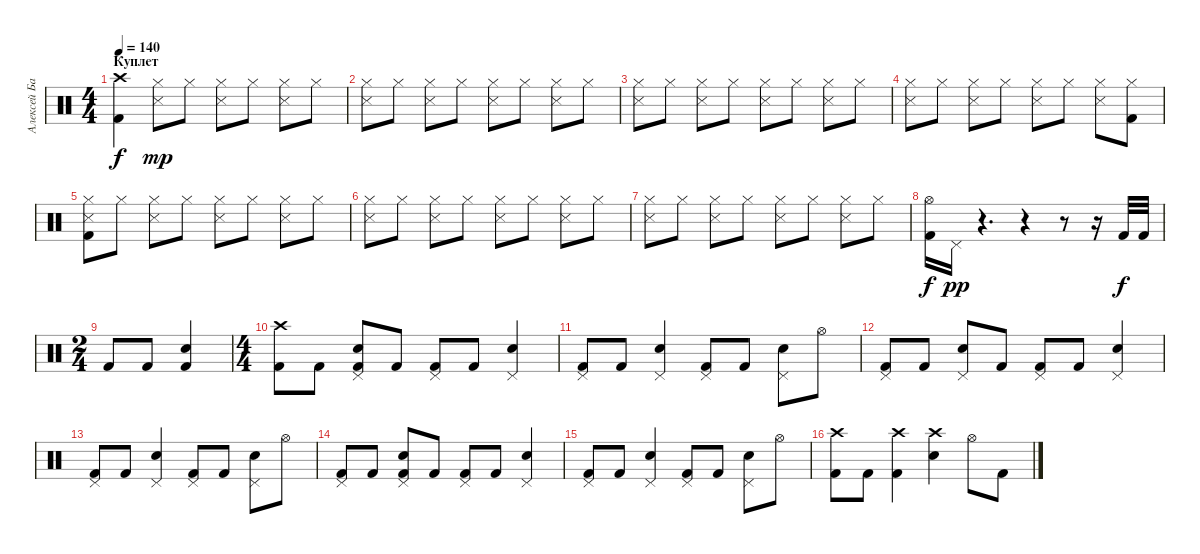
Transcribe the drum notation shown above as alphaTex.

\track ("Алексей Барзилович" "Алексей Ба") {instrument percussion}
\staff {score}
\articulation defaults
\ts (4 4)
\section ("" "Куплет")
\tempo 140
\clef neutral
\ks c
("Crash high (hit)" "Kick (hit) 2").4{dy f} ("Hi-Hat (closed)" "Snare (side stick) 3").8{dy mp} "Hi-Hat (closed)".8 ("Hi-Hat (closed)" "Snare (side stick) 3").8 "Hi-Hat (closed)".8 ("Hi-Hat (closed)" "Snare (side stick) 3").8 "Hi-Hat (closed)".8 |
("Hi-Hat (closed)" "Snare (side stick) 3").8 "Hi-Hat (closed)".8 ("Hi-Hat (closed)" "Snare (side stick) 3").8 "Hi-Hat (closed)".8 ("Hi-Hat (closed)" "Snare (side stick) 3").8 "Hi-Hat (closed)".8 ("Hi-Hat (closed)" "Snare (side stick) 3").8 "Hi-Hat (closed)".8 |
("Hi-Hat (closed)" "Snare (side stick) 3").8 "Hi-Hat (closed)".8 ("Hi-Hat (closed)" "Snare (side stick) 3").8 "Hi-Hat (closed)".8 ("Hi-Hat (closed)" "Snare (side stick) 3").8 "Hi-Hat (closed)".8 ("Hi-Hat (closed)" "Snare (side stick) 3").8 "Hi-Hat (closed)".8 |
("Hi-Hat (closed)" "Snare (side stick) 3").8 "Hi-Hat (closed)".8 ("Hi-Hat (closed)" "Snare (side stick) 3").8 "Hi-Hat (closed)".8 ("Hi-Hat (closed)" "Snare (side stick) 3").8 "Hi-Hat (closed)".8 ("Hi-Hat (closed)" "Snare (side stick) 3").8 ("Hi-Hat (closed)" "Kick (hit) 2").8 |
("Hi-Hat (closed)" "Snare (side stick) 3" "Kick (hit) 2").8 "Hi-Hat (closed)".8 ("Hi-Hat (closed)" "Snare (side stick) 3").8 "Hi-Hat (closed)".8 ("Hi-Hat (closed)" "Snare (side stick) 3").8 "Hi-Hat (closed)".8 ("Hi-Hat (closed)" "Snare (side stick) 3").8 "Hi-Hat (closed)".8 |
("Hi-Hat (closed)" "Snare (side stick) 3").8 "Hi-Hat (closed)".8 ("Hi-Hat (closed)" "Snare (side stick) 3").8 "Hi-Hat (closed)".8 ("Hi-Hat (closed)" "Snare (side stick) 3").8 "Hi-Hat (closed)".8 ("Hi-Hat (closed)" "Snare (side stick) 3").8 "Hi-Hat (closed)".8 |
("Hi-Hat (closed)" "Snare (side stick) 3").8 "Hi-Hat (closed)".8 ("Hi-Hat (closed)" "Snare (side stick) 3").8 "Hi-Hat (closed)".8 ("Hi-Hat (closed)" "Snare (side stick) 3").8 "Hi-Hat (closed)".8 ("Hi-Hat (closed)" "Snare (side stick) 3").8 "Hi-Hat (closed)".8 |
("Hi-Hat (open)" "Kick (hit) 2").16{dy f} "Pedal Hi-Hat (hit)".16{dy pp} r.4{d} r.4 r.8 r.16 "Kick (hit) 2".32{dy f} "Kick (hit) 2".32 |
\ts (2 4)
"Kick (hit) 2".8 "Kick (hit) 2".8 ("Electric Snare (hit)" "Kick (hit) 2").4 |
\ts (4 4)
("Crash high (hit)" "Kick (hit) 2").8 "Kick (hit) 2".8 ("Pedal Hi-Hat (hit)" "Electric Snare (hit)" "Kick (hit) 2").8 "Kick (hit) 2".8 ("Pedal Hi-Hat (hit)" "Kick (hit) 2").8 "Kick (hit) 2".8 ("Pedal Hi-Hat (hit)" "Electric Snare (hit)").4 |
("Pedal Hi-Hat (hit)" "Kick (hit) 2").8 "Kick (hit) 2".8 ("Pedal Hi-Hat (hit)" "Electric Snare (hit)").4 ("Pedal Hi-Hat (hit)" "Kick (hit) 2").8 "Kick (hit) 2".8 ("Pedal Hi-Hat (hit)" "Electric Snare (hit)").8 "Hi-Hat (open)".8 |
("Pedal Hi-Hat (hit)" "Kick (hit) 2").8 "Kick (hit) 2".8 ("Pedal Hi-Hat (hit)" "Electric Snare (hit)").8 "Kick (hit) 2".8 ("Pedal Hi-Hat (hit)" "Kick (hit) 2").8 "Kick (hit) 2".8 ("Pedal Hi-Hat (hit)" "Electric Snare (hit)").4 |
("Pedal Hi-Hat (hit)" "Kick (hit) 2").8 "Kick (hit) 2".8 ("Pedal Hi-Hat (hit)" "Electric Snare (hit)").4 ("Pedal Hi-Hat (hit)" "Kick (hit) 2").8 "Kick (hit) 2".8 ("Pedal Hi-Hat (hit)" "Electric Snare (hit)").8 "Hi-Hat (open)".8 |
("Pedal Hi-Hat (hit)" "Kick (hit) 2").8 "Kick (hit) 2".8 ("Pedal Hi-Hat (hit)" "Electric Snare (hit)" "Kick (hit) 2").8 "Kick (hit) 2".8 ("Pedal Hi-Hat (hit)" "Kick (hit) 2").8 "Kick (hit) 2".8 ("Pedal Hi-Hat (hit)" "Electric Snare (hit)").4 |
("Pedal Hi-Hat (hit)" "Kick (hit) 2").8 "Kick (hit) 2".8 ("Pedal Hi-Hat (hit)" "Electric Snare (hit)").4 ("Pedal Hi-Hat (hit)" "Kick (hit) 2").8 "Kick (hit) 2".8 ("Pedal Hi-Hat (hit)" "Electric Snare (hit)").8 "Hi-Hat (open)".8 |
("Crash high (hit)" "Kick (hit) 2").8 "Kick (hit) 2".8 ("Crash high (hit)" "Kick (hit) 2").4 ("Crash high (hit)" "Electric Snare (hit)").4 "Hi-Hat (open)".8 "Kick (hit) 2".8
